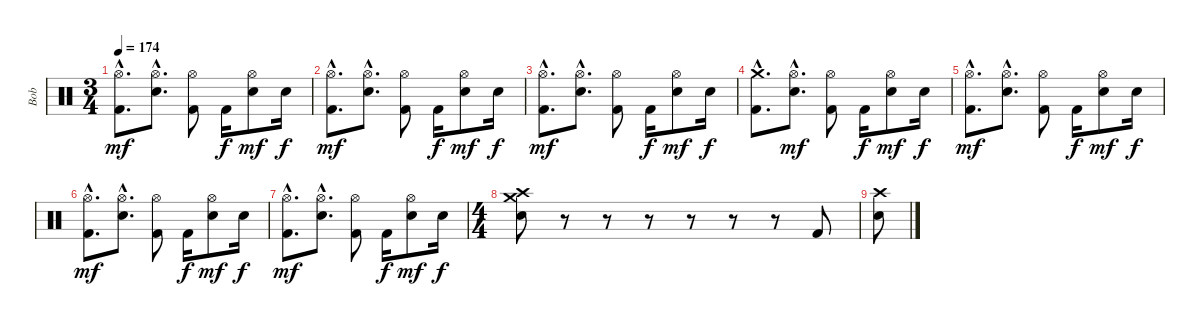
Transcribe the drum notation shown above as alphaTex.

\track ("Bob" "Bob") {instrument percussion}
\staff {score}
\articulation defaults
\ts (3 4)
\tempo 174
\clef neutral
\ks c
("Hi-Hat (open)"{hac} "Kick (hit) 2"{hac}).8{d dy mf} ("Hi-Hat (open)"{hac} "Electric Snare (hit)"{hac}).8{d} ("Hi-Hat (open)" "Kick (hit) 2").8 "Kick (hit) 2".16{dy f} ("Hi-Hat (open)" "Electric Snare (hit)").8{dy mf} "Electric Snare (hit)".16{dy f} |
("Hi-Hat (open)"{hac} "Kick (hit) 2"{hac}).8{d dy mf} ("Hi-Hat (open)"{hac} "Electric Snare (hit)"{hac}).8{d} ("Hi-Hat (open)" "Kick (hit) 2").8 "Kick (hit) 2".16{dy f} ("Hi-Hat (open)" "Electric Snare (hit)").8{dy mf} "Electric Snare (hit)".16{dy f} |
("Hi-Hat (open)"{hac} "Kick (hit) 2"{hac}).8{d dy mf} ("Hi-Hat (open)"{hac} "Electric Snare (hit)"{hac}).8{d} ("Hi-Hat (open)" "Kick (hit) 2").8 "Kick (hit) 2".16{dy f} ("Hi-Hat (open)" "Electric Snare (hit)").8{dy mf} "Electric Snare (hit)".16{dy f} |
("Crash medium (hit)"{hac} "Kick (hit) 2"{hac}).8{d} ("Hi-Hat (open)"{hac} "Electric Snare (hit)"{hac}).8{d dy mf} ("Hi-Hat (open)" "Kick (hit) 2").8 "Kick (hit) 2".16{dy f} ("Hi-Hat (open)" "Electric Snare (hit)").8{dy mf} "Electric Snare (hit)".16{dy f} |
("Hi-Hat (open)"{hac} "Kick (hit) 2"{hac}).8{d dy mf} ("Hi-Hat (open)"{hac} "Electric Snare (hit)"{hac}).8{d} ("Hi-Hat (open)" "Kick (hit) 2").8 "Kick (hit) 2".16{dy f} ("Hi-Hat (open)" "Electric Snare (hit)").8{dy mf} "Electric Snare (hit)".16{dy f} |
("Hi-Hat (open)"{hac} "Kick (hit) 2"{hac}).8{d dy mf} ("Hi-Hat (open)"{hac} "Electric Snare (hit)"{hac}).8{d} ("Hi-Hat (open)" "Kick (hit) 2").8 "Kick (hit) 2".16{dy f} ("Hi-Hat (open)" "Electric Snare (hit)").8{dy mf} "Electric Snare (hit)".16{dy f} |
("Hi-Hat (open)"{hac} "Kick (hit) 2"{hac}).8{d dy mf} ("Hi-Hat (open)"{hac} "Electric Snare (hit)"{hac}).8{d} ("Hi-Hat (open)" "Kick (hit) 2").8 "Kick (hit) 2".16{dy f} ("Hi-Hat (open)" "Electric Snare (hit)").8{dy mf} "Electric Snare (hit)".16{dy f} |
\ts (4 4)
("Crash medium (hit)" "Crash high (hit)" "Electric Snare (hit)").8 r.8 r.8 r.8 r.8 r.8 r.8 "Kick (hit) 2".8 |
("Crash high (hit)" "Electric Snare (hit)").8
